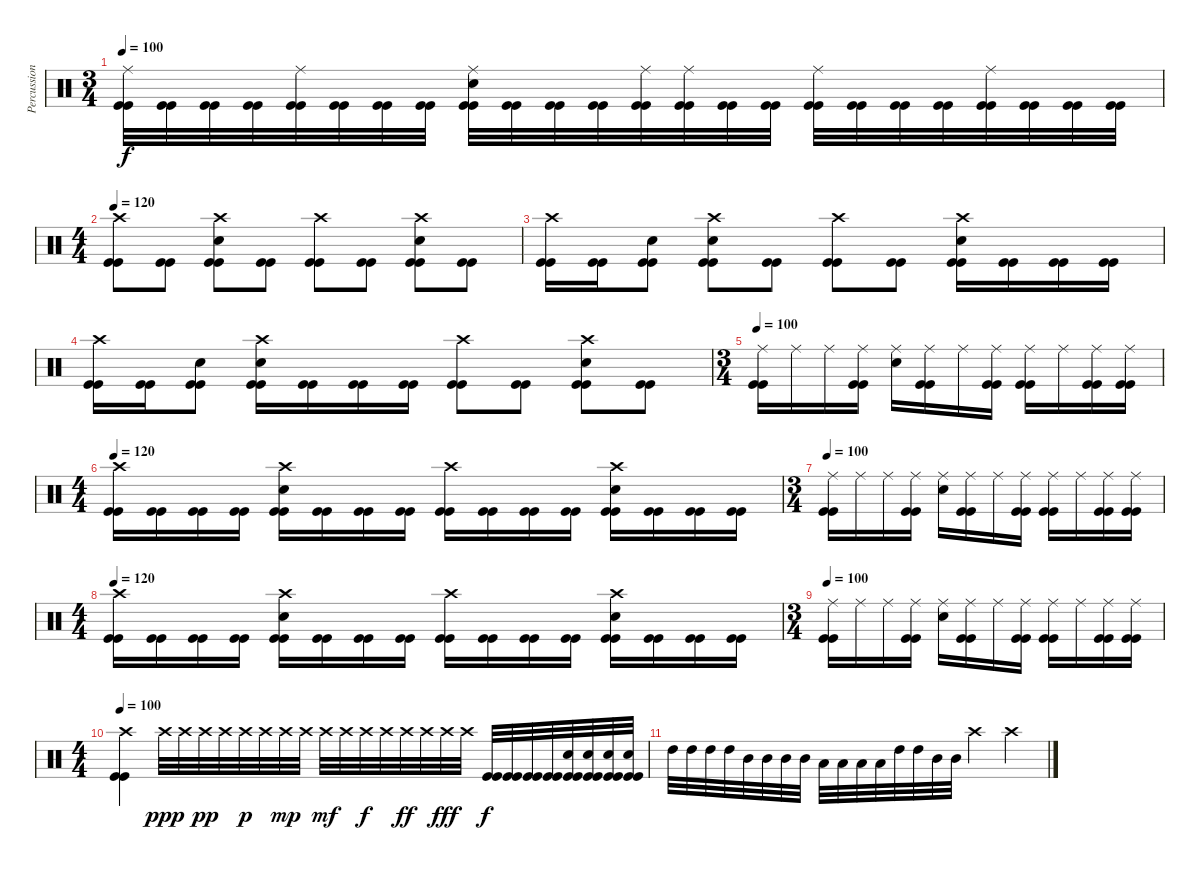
\track ("Percussion" "Percussion") {instrument percussion}
\staff {score}
\articulation defaults
\ts (3 4)
\tempo 100
\clef neutral
\ks c
("Ride (middle)" "Kick (hit)" "Kick (hit)").32{dy f} ("Kick (hit)" "Kick (hit)").32 ("Kick (hit)" "Kick (hit)").32 ("Kick (hit)" "Kick (hit)").32 ("Ride (middle)" "Kick (hit)" "Kick (hit)").32 ("Kick (hit)" "Kick (hit)").32 ("Kick (hit)" "Kick (hit)").32 ("Kick (hit)" "Kick (hit)").32 ("Ride (middle)" "Snare (hit) 2" "Kick (hit)" "Kick (hit)").32 ("Kick (hit)" "Kick (hit)").32 ("Kick (hit)" "Kick (hit)").32 ("Kick (hit)" "Kick (hit)").32 ("Ride (middle)" "Kick (hit)" "Kick (hit)").32 ("Ride (middle)" "Kick (hit)" "Kick (hit)").32 ("Kick (hit)" "Kick (hit)").32 ("Kick (hit)" "Kick (hit)").32 ("Ride (middle)" "Kick (hit)" "Kick (hit)").32 ("Kick (hit)" "Kick (hit)").32 ("Kick (hit)" "Kick (hit)").32 ("Kick (hit)" "Kick (hit)").32 ("Ride (middle)" "Kick (hit)" "Kick (hit)").32 ("Kick (hit)" "Kick (hit)").32 ("Kick (hit)" "Kick (hit)").32 ("Kick (hit)" "Kick (hit)").32 |
\ts (4 4)
\tempo 120
("Crash high (hit)" "Kick (hit)" "Kick (hit)").8 ("Kick (hit)" "Kick (hit)").8 ("Crash high (hit)" "Snare (hit) 2" "Kick (hit)" "Kick (hit)").8 ("Kick (hit)" "Kick (hit)").8 ("Crash high (hit)" "Kick (hit)" "Kick (hit)").8 ("Kick (hit)" "Kick (hit)").8 ("Crash high (hit)" "Snare (hit) 2" "Kick (hit)" "Kick (hit)").8 ("Kick (hit)" "Kick (hit)").8 |
("Crash high (hit)" "Kick (hit)" "Kick (hit)").16 ("Kick (hit)" "Kick (hit)").16 ("Snare (hit) 2" "Kick (hit)" "Kick (hit)").8 ("Crash high (hit)" "Snare (hit) 2" "Kick (hit)" "Kick (hit)").8 ("Kick (hit)" "Kick (hit)").8 ("Crash high (hit)" "Kick (hit)" "Kick (hit)").8 ("Kick (hit)" "Kick (hit)").8 ("Crash high (hit)" "Snare (hit) 2" "Kick (hit)" "Kick (hit)").16 ("Kick (hit)" "Kick (hit)").16 ("Kick (hit)" "Kick (hit)").16 ("Kick (hit)" "Kick (hit)").16 |
("Crash high (hit)" "Kick (hit)" "Kick (hit)").16 ("Kick (hit)" "Kick (hit)").16 ("Snare (hit) 2" "Kick (hit)" "Kick (hit)").8 ("Crash high (hit)" "Snare (hit) 2" "Kick (hit)" "Kick (hit)").16 ("Kick (hit)" "Kick (hit)").16 ("Kick (hit)" "Kick (hit)").16 ("Kick (hit)" "Kick (hit)").16 ("Crash high (hit)" "Kick (hit)" "Kick (hit)").8 ("Kick (hit)" "Kick (hit)").8 ("Crash high (hit)" "Snare (hit) 2" "Kick (hit)" "Kick (hit)").8 ("Kick (hit)" "Kick (hit)").8 |
\ts (3 4)
\tempo 100
("Ride (middle)" "Kick (hit)" "Kick (hit)").16 "Ride (middle)".16 "Ride (middle)".16 ("Ride (middle)" "Kick (hit)" "Kick (hit)").16 ("Ride (middle)" "Snare (hit) 2").16 ("Ride (middle)" "Kick (hit)" "Kick (hit)").16 "Ride (middle)".16 ("Ride (middle)" "Kick (hit)" "Kick (hit)").16 ("Ride (middle)" "Kick (hit)" "Kick (hit)").16 "Ride (middle)".16 ("Ride (middle)" "Kick (hit)" "Kick (hit)").16 ("Ride (middle)" "Kick (hit)" "Kick (hit)").16 |
\ts (4 4)
\tempo 120
("Crash high (hit)" "Kick (hit)" "Kick (hit)").16 ("Kick (hit)" "Kick (hit)").16 ("Kick (hit)" "Kick (hit)").16 ("Kick (hit)" "Kick (hit)").16 ("Crash high (hit)" "Snare (hit) 2" "Kick (hit)" "Kick (hit)").16 ("Kick (hit)" "Kick (hit)").16 ("Kick (hit)" "Kick (hit)").16 ("Kick (hit)" "Kick (hit)").16 ("Crash high (hit)" "Kick (hit)" "Kick (hit)").16 ("Kick (hit)" "Kick (hit)").16 ("Kick (hit)" "Kick (hit)").16 ("Kick (hit)" "Kick (hit)").16 ("Crash high (hit)" "Snare (hit) 2" "Kick (hit)" "Kick (hit)").16 ("Kick (hit)" "Kick (hit)").16 ("Kick (hit)" "Kick (hit)").16 ("Kick (hit)" "Kick (hit)").16 |
\ts (3 4)
\tempo 100
("Ride (middle)" "Kick (hit)" "Kick (hit)").16 "Ride (middle)".16 "Ride (middle)".16 ("Ride (middle)" "Kick (hit)" "Kick (hit)").16 ("Ride (middle)" "Snare (hit) 2").16 ("Ride (middle)" "Kick (hit)" "Kick (hit)").16 "Ride (middle)".16 ("Ride (middle)" "Kick (hit)" "Kick (hit)").16 ("Ride (middle)" "Kick (hit)" "Kick (hit)").16 "Ride (middle)".16 ("Ride (middle)" "Kick (hit)" "Kick (hit)").16 ("Ride (middle)" "Kick (hit)" "Kick (hit)").16 |
\ts (4 4)
\tempo 120
("Crash high (hit)" "Kick (hit)" "Kick (hit)").16 ("Kick (hit)" "Kick (hit)").16 ("Kick (hit)" "Kick (hit)").16 ("Kick (hit)" "Kick (hit)").16 ("Crash high (hit)" "Snare (hit) 2" "Kick (hit)" "Kick (hit)").16 ("Kick (hit)" "Kick (hit)").16 ("Kick (hit)" "Kick (hit)").16 ("Kick (hit)" "Kick (hit)").16 ("Crash high (hit)" "Kick (hit)" "Kick (hit)").16 ("Kick (hit)" "Kick (hit)").16 ("Kick (hit)" "Kick (hit)").16 ("Kick (hit)" "Kick (hit)").16 ("Crash high (hit)" "Snare (hit) 2" "Kick (hit)" "Kick (hit)").16 ("Kick (hit)" "Kick (hit)").16 ("Kick (hit)" "Kick (hit)").16 ("Kick (hit)" "Kick (hit)").16 |
\ts (3 4)
\tempo 100
("Ride (middle)" "Kick (hit)" "Kick (hit)").16 "Ride (middle)".16 "Ride (middle)".16 ("Ride (middle)" "Kick (hit)" "Kick (hit)").16 ("Ride (middle)" "Snare (hit) 2").16 ("Ride (middle)" "Kick (hit)" "Kick (hit)").16 "Ride (middle)".16 ("Ride (middle)" "Kick (hit)" "Kick (hit)").16 ("Ride (middle)" "Kick (hit)" "Kick (hit)").16 "Ride (middle)".16 ("Ride (middle)" "Kick (hit)" "Kick (hit)").16 ("Ride (middle)" "Kick (hit)" "Kick (hit)").16 |
\ts (4 4)
\tempo 100
("Crash high (hit)" "Kick (hit)" "Kick (hit)").4 "Crash high (hit)".32{dy ppp} "Crash high (hit)".32 "Crash high (hit)".32{dy pp} "Crash high (hit)".32 "Crash high (hit)".32{dy p} "Crash high (hit)".32 "Crash high (hit)".32{dy mp} "Crash high (hit)".32 "Crash high (hit)".32{dy mf} "Crash high (hit)".32 "Crash high (hit)".32{dy f} "Crash high (hit)".32 "Crash high (hit)".32{dy ff} "Crash high (hit)".32 "Crash high (hit)".32{dy fff} "Crash high (hit)".32 ("Kick (hit)" "Kick (hit)").32{dy f} ("Kick (hit)" "Kick (hit)").32 ("Kick (hit)" "Kick (hit)").32 ("Kick (hit)" "Kick (hit)").32 ("Snare (hit) 2" "Kick (hit)" "Kick (hit)").32 ("Snare (hit) 2" "Kick (hit)" "Kick (hit)").32 ("Snare (hit) 2" "Kick (hit)" "Kick (hit)").32 ("Snare (hit) 2" "Kick (hit)" "Kick (hit)").32 |
"High Tom (hit)".32 "High Tom (hit)".32 "High Tom (hit)".32 "High Tom (hit)".32 "Mid Tom (hit)".32 "Mid Tom (hit)".32 "Mid Tom (hit)".32 "Mid Tom (hit)".32 "Low Tom (hit)".32 "Low Tom (hit)".32 "Low Tom (hit)".32 "Low Tom (hit)".32 "High Tom (hit)".32 "High Tom (hit)".32 "Mid Tom (hit)".32 "Mid Tom (hit)".32 "Crash high (hit)".4 "Crash high (hit)".4
